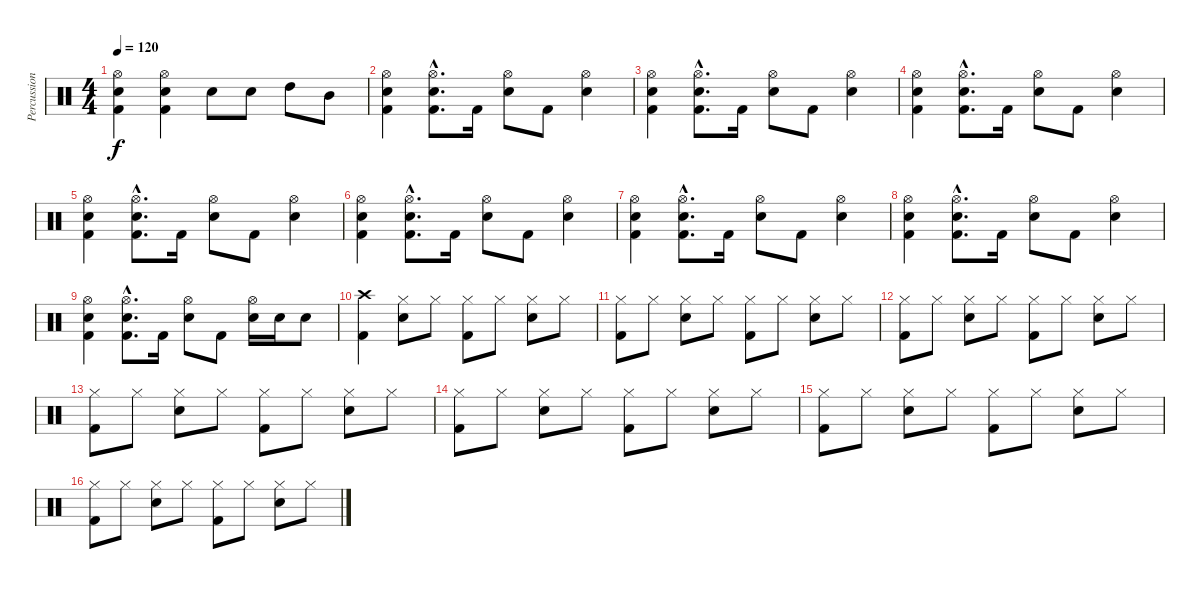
\track ("Percussions" "Percussion") {instrument percussion}
\staff {score}
\articulation defaults
\ts (4 4)
\tempo 120
\clef neutral
\ks c
("Hi-Hat (open)" "Snare (hit) 2" "Kick (hit) 2").4{dy f} ("Hi-Hat (open)" "Snare (hit) 2" "Kick (hit) 2").4 "Snare (hit) 2".8 "Snare (hit) 2".8 "High Tom (hit)".8 "Mid Tom (hit)".8 |
("Hi-Hat (open)" "Snare (hit) 2" "Kick (hit) 2").4 ("Hi-Hat (open)"{hac} "Snare (hit) 2"{hac} "Kick (hit) 2"{hac}).8{d} "Kick (hit) 2".16 ("Hi-Hat (open)" "Snare (hit) 2").8 "Kick (hit) 2".8 ("Hi-Hat (open)" "Snare (hit) 2").4 |
("Hi-Hat (open)" "Snare (hit) 2" "Kick (hit) 2").4 ("Hi-Hat (open)"{hac} "Snare (hit) 2"{hac} "Kick (hit) 2"{hac}).8{d} "Kick (hit) 2".16 ("Hi-Hat (open)" "Snare (hit) 2").8 "Kick (hit) 2".8 ("Hi-Hat (open)" "Snare (hit) 2").4 |
("Hi-Hat (open)" "Snare (hit) 2" "Kick (hit) 2").4 ("Hi-Hat (open)"{hac} "Snare (hit) 2"{hac} "Kick (hit) 2"{hac}).8{d} "Kick (hit) 2".16 ("Hi-Hat (open)" "Snare (hit) 2").8 "Kick (hit) 2".8 ("Hi-Hat (open)" "Snare (hit) 2").4 |
("Hi-Hat (open)" "Snare (hit) 2" "Kick (hit) 2").4 ("Hi-Hat (open)"{hac} "Snare (hit) 2"{hac} "Kick (hit) 2"{hac}).8{d} "Kick (hit) 2".16 ("Hi-Hat (open)" "Snare (hit) 2").8 "Kick (hit) 2".8 ("Hi-Hat (open)" "Snare (hit) 2").4 |
("Hi-Hat (open)" "Snare (hit) 2" "Kick (hit) 2").4 ("Hi-Hat (open)"{hac} "Snare (hit) 2"{hac} "Kick (hit) 2"{hac}).8{d} "Kick (hit) 2".16 ("Hi-Hat (open)" "Snare (hit) 2").8 "Kick (hit) 2".8 ("Hi-Hat (open)" "Snare (hit) 2").4 |
("Hi-Hat (open)" "Snare (hit) 2" "Kick (hit) 2").4 ("Hi-Hat (open)"{hac} "Snare (hit) 2"{hac} "Kick (hit) 2"{hac}).8{d} "Kick (hit) 2".16 ("Hi-Hat (open)" "Snare (hit) 2").8 "Kick (hit) 2".8 ("Hi-Hat (open)" "Snare (hit) 2").4 |
("Hi-Hat (open)" "Snare (hit) 2" "Kick (hit) 2").4 ("Hi-Hat (open)"{hac} "Snare (hit) 2"{hac} "Kick (hit) 2"{hac}).8{d} "Kick (hit) 2".16 ("Hi-Hat (open)" "Snare (hit) 2").8 "Kick (hit) 2".8 ("Hi-Hat (open)" "Snare (hit) 2").4 |
("Hi-Hat (open)" "Snare (hit) 2" "Kick (hit) 2").4 ("Hi-Hat (open)"{hac} "Snare (hit) 2"{hac} "Kick (hit) 2"{hac}).8{d} "Kick (hit) 2".16 ("Hi-Hat (open)" "Snare (hit) 2").8 "Kick (hit) 2".8 ("Hi-Hat (open)" "Snare (hit) 2").16 "Snare (hit) 2".16 "Snare (hit) 2".8 |
("Crash high (hit)" "Kick (hit) 2").4 ("Hi-Hat (closed)" "Snare (hit) 2").8 "Hi-Hat (closed)".8 ("Hi-Hat (closed)" "Kick (hit) 2").8 "Hi-Hat (closed)".8 ("Hi-Hat (closed)" "Snare (hit) 2").8 "Hi-Hat (closed)".8 |
("Hi-Hat (closed)" "Kick (hit) 2").8 "Hi-Hat (closed)".8 ("Hi-Hat (closed)" "Snare (hit) 2").8 "Hi-Hat (closed)".8 ("Hi-Hat (closed)" "Kick (hit) 2").8 "Hi-Hat (closed)".8 ("Hi-Hat (closed)" "Snare (hit) 2").8 "Hi-Hat (closed)".8 |
("Hi-Hat (closed)" "Kick (hit) 2").8 "Hi-Hat (closed)".8 ("Hi-Hat (closed)" "Snare (hit) 2").8 "Hi-Hat (closed)".8 ("Hi-Hat (closed)" "Kick (hit) 2").8 "Hi-Hat (closed)".8 ("Hi-Hat (closed)" "Snare (hit) 2").8 "Hi-Hat (closed)".8 |
("Hi-Hat (closed)" "Kick (hit) 2").8 "Hi-Hat (closed)".8 ("Hi-Hat (closed)" "Snare (hit) 2").8 "Hi-Hat (closed)".8 ("Hi-Hat (closed)" "Kick (hit) 2").8 "Hi-Hat (closed)".8 ("Hi-Hat (closed)" "Snare (hit) 2").8 "Hi-Hat (closed)".8 |
("Hi-Hat (closed)" "Kick (hit) 2").8 "Hi-Hat (closed)".8 ("Hi-Hat (closed)" "Snare (hit) 2").8 "Hi-Hat (closed)".8 ("Hi-Hat (closed)" "Kick (hit) 2").8 "Hi-Hat (closed)".8 ("Hi-Hat (closed)" "Snare (hit) 2").8 "Hi-Hat (closed)".8 |
("Hi-Hat (closed)" "Kick (hit) 2").8 "Hi-Hat (closed)".8 ("Hi-Hat (closed)" "Snare (hit) 2").8 "Hi-Hat (closed)".8 ("Hi-Hat (closed)" "Kick (hit) 2").8 "Hi-Hat (closed)".8 ("Hi-Hat (closed)" "Snare (hit) 2").8 "Hi-Hat (closed)".8 |
("Hi-Hat (closed)" "Kick (hit) 2").8 "Hi-Hat (closed)".8 ("Hi-Hat (closed)" "Snare (hit) 2").8 "Hi-Hat (closed)".8 ("Hi-Hat (closed)" "Kick (hit) 2").8 "Hi-Hat (closed)".8 ("Hi-Hat (closed)" "Snare (hit) 2").8 "Hi-Hat (closed)".8
